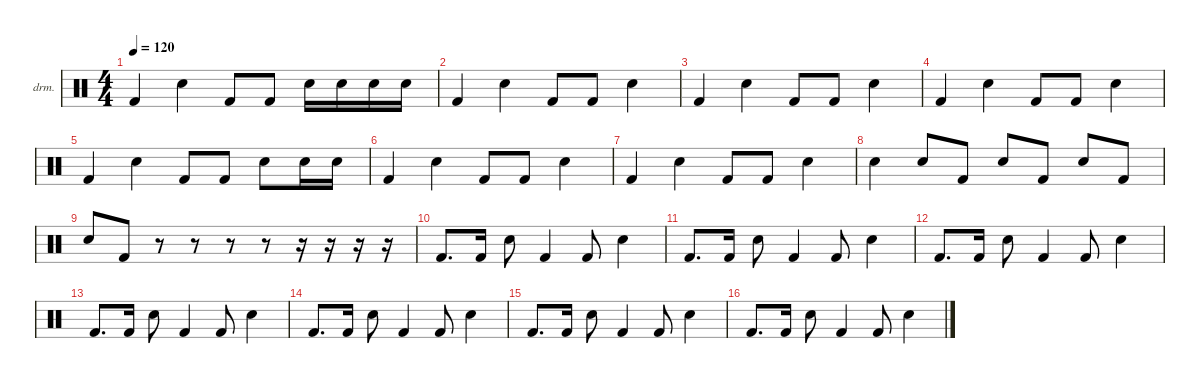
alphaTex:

\defaultSystemsLayout 4
\hideDynamics
\bracketExtendMode nobrackets
\firstSystemTrackNameOrientation horizontal
\otherSystemsTrackNameOrientation horizontal
\track ("Percussion" "drm.") {instrument percussion}
\staff {score}
\articulation defaults
\ts (4 4)
\tempo 120
\clef neutral
\ks c "Kick (hit) 2".4{dy f} "Snare (hit) 2".4 "Kick (hit) 2".8 "Kick (hit) 2".8 "Snare (hit) 2".16 "Snare (hit) 2".16 "Snare (hit) 2".16 "Snare (hit) 2".16
|
"Kick (hit) 2".4 "Snare (hit) 2".4 "Kick (hit) 2".8 "Kick (hit) 2".8 "Snare (hit) 2".4 |
"Kick (hit) 2".4 "Snare (hit) 2".4 "Kick (hit) 2".8 "Kick (hit) 2".8 "Snare (hit) 2".4 |
"Kick (hit) 2".4 "Snare (hit) 2".4 "Kick (hit) 2".8 "Kick (hit) 2".8 "Snare (hit) 2".4 |
"Kick (hit) 2".4 "Snare (hit) 2".4 "Kick (hit) 2".8 "Kick (hit) 2".8 "Snare (hit) 2".8 "Snare (hit) 2".16 "Snare (hit) 2".16 |
"Kick (hit) 2".4 "Snare (hit) 2".4 "Kick (hit) 2".8 "Kick (hit) 2".8 "Snare (hit) 2".4 |
"Kick (hit) 2".4 "Snare (hit) 2".4 "Kick (hit) 2".8 "Kick (hit) 2".8 "Snare (hit) 2".4 |
"Snare (hit) 2".4 "Snare (hit) 2".8 "Kick (hit) 2".8 "Snare (hit) 2".8 "Kick (hit) 2".8 "Snare (hit) 2".8 "Kick (hit) 2".8 |
"Snare (hit) 2".8 "Kick (hit) 2".8 r.8 r.8 r.8 r.8 r.16 r.16 r.16 r.16 |
"Kick (hit) 2".8{d} "Kick (hit) 2".16 "Snare (hit) 2".8 "Kick (hit) 2".4 "Kick (hit) 2".8 "Snare (hit) 2".4 |
"Kick (hit) 2".8{d} "Kick (hit) 2".16 "Snare (hit) 2".8 "Kick (hit) 2".4 "Kick (hit) 2".8 "Snare (hit) 2".4 |
"Kick (hit) 2".8{d} "Kick (hit) 2".16 "Snare (hit) 2".8 "Kick (hit) 2".4 "Kick (hit) 2".8 "Snare (hit) 2".4 |
"Kick (hit) 2".8{d} "Kick (hit) 2".16 "Snare (hit) 2".8 "Kick (hit) 2".4 "Kick (hit) 2".8 "Snare (hit) 2".4 |
"Kick (hit) 2".8{d} "Kick (hit) 2".16 "Snare (hit) 2".8 "Kick (hit) 2".4 "Kick (hit) 2".8 "Snare (hit) 2".4 |
"Kick (hit) 2".8{d} "Kick (hit) 2".16 "Snare (hit) 2".8 "Kick (hit) 2".4 "Kick (hit) 2".8 "Snare (hit) 2".4 |
"Kick (hit) 2".8{d} "Kick (hit) 2".16 "Snare (hit) 2".8 "Kick (hit) 2".4 "Kick (hit) 2".8 "Snare (hit) 2".4
